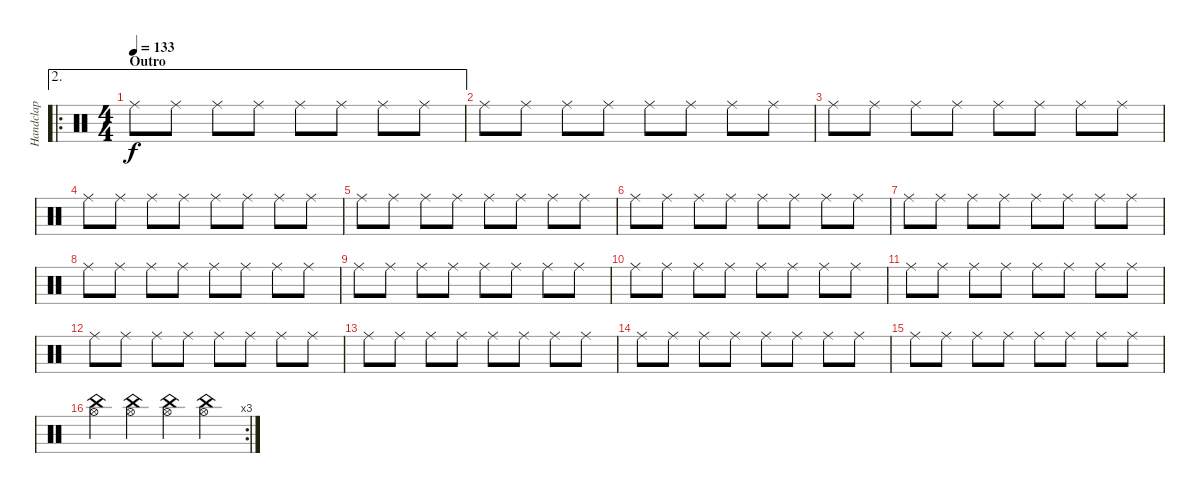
\track ("Handclap" "Handclap") {instrument percussion}
\staff {score}
\articulation defaults
\ae 2
\ro
\ts (4 4)
\section ("" "Outro")
\tempo 133
\clef neutral
\ks c "Ride (middle)".8{dy f} "Ride (middle)".8 "Ride (middle)".8 "Ride (middle)".8 "Ride (middle)".8 "Ride (middle)".8 "Ride (middle)".8 "Ride (middle)".8
|
"Ride (middle)".8 "Ride (middle)".8 "Ride (middle)".8 "Ride (middle)".8 "Ride (middle)".8 "Ride (middle)".8 "Ride (middle)".8 "Ride (middle)".8 |
"Ride (middle)".8 "Ride (middle)".8 "Ride (middle)".8 "Ride (middle)".8 "Ride (middle)".8 "Ride (middle)".8 "Ride (middle)".8 "Ride (middle)".8 |
"Ride (middle)".8 "Ride (middle)".8 "Ride (middle)".8 "Ride (middle)".8 "Ride (middle)".8 "Ride (middle)".8 "Ride (middle)".8 "Ride (middle)".8 |
"Ride (middle)".8 "Ride (middle)".8 "Ride (middle)".8 "Ride (middle)".8 "Ride (middle)".8 "Ride (middle)".8 "Ride (middle)".8 "Ride (middle)".8 |
"Ride (middle)".8 "Ride (middle)".8 "Ride (middle)".8 "Ride (middle)".8 "Ride (middle)".8 "Ride (middle)".8 "Ride (middle)".8 "Ride (middle)".8 |
"Ride (middle)".8 "Ride (middle)".8 "Ride (middle)".8 "Ride (middle)".8 "Ride (middle)".8 "Ride (middle)".8 "Ride (middle)".8 "Ride (middle)".8 |
"Ride (middle)".8 "Ride (middle)".8 "Ride (middle)".8 "Ride (middle)".8 "Ride (middle)".8 "Ride (middle)".8 "Ride (middle)".8 "Ride (middle)".8 |
"Ride (middle)".8 "Ride (middle)".8 "Ride (middle)".8 "Ride (middle)".8 "Ride (middle)".8 "Ride (middle)".8 "Ride (middle)".8 "Ride (middle)".8 |
"Ride (middle)".8 "Ride (middle)".8 "Ride (middle)".8 "Ride (middle)".8 "Ride (middle)".8 "Ride (middle)".8 "Ride (middle)".8 "Ride (middle)".8 |
"Ride (middle)".8 "Ride (middle)".8 "Ride (middle)".8 "Ride (middle)".8 "Ride (middle)".8 "Ride (middle)".8 "Ride (middle)".8 "Ride (middle)".8 |
"Ride (middle)".8 "Ride (middle)".8 "Ride (middle)".8 "Ride (middle)".8 "Ride (middle)".8 "Ride (middle)".8 "Ride (middle)".8 "Ride (middle)".8 |
"Ride (middle)".8 "Ride (middle)".8 "Ride (middle)".8 "Ride (middle)".8 "Ride (middle)".8 "Ride (middle)".8 "Ride (middle)".8 "Ride (middle)".8 |
"Ride (middle)".8 "Ride (middle)".8 "Ride (middle)".8 "Ride (middle)".8 "Ride (middle)".8 "Ride (middle)".8 "Ride (middle)".8 "Ride (middle)".8 |
"Ride (middle)".8 "Ride (middle)".8 "Ride (middle)".8 "Ride (middle)".8 "Ride (middle)".8 "Ride (middle)".8 "Ride (middle)".8 "Ride (middle)".8 |
\rc 3
("Hi-Hat (open)" "China (hit)").4 ("Hi-Hat (open)" "China (hit)").4 ("Hi-Hat (open)" "China (hit)").4 ("Hi-Hat (open)" "China (hit)").4
